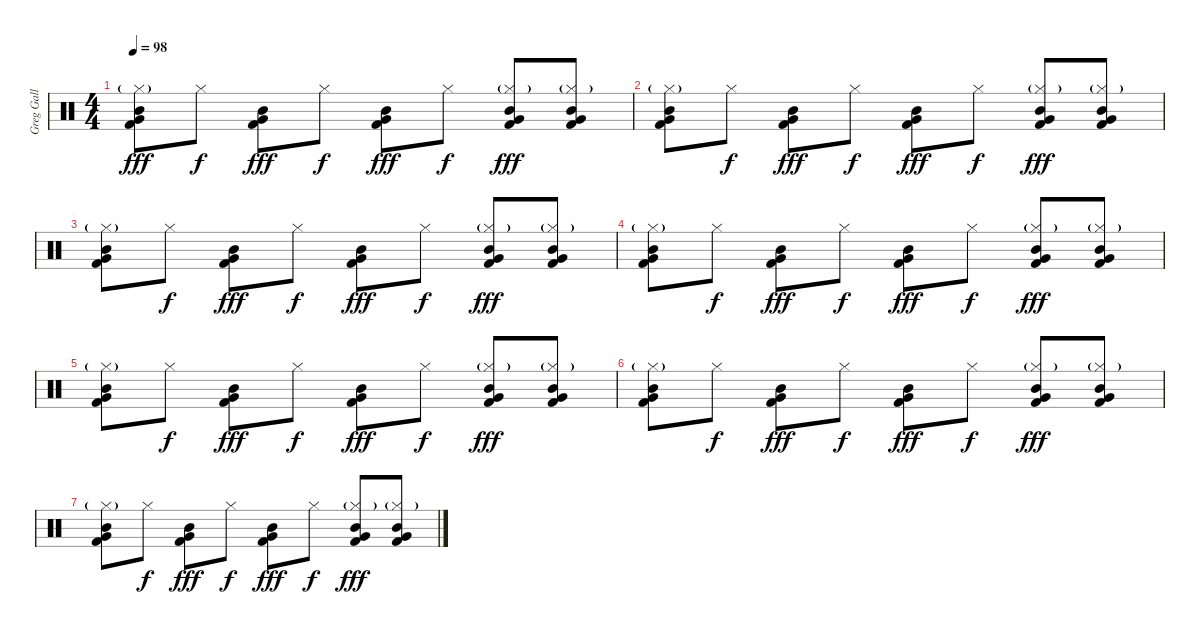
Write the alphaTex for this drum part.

\track ("Greg Gall" "Greg Gall") {instrument percussion}
\staff {score}
\articulation defaults
\ts (4 4)
\tempo 98
\clef neutral
\ks c
("Mid Tom (hit)" "Hi-Hat (closed)"{g} "Very Low Tom (hit)" "Kick (hit) 2").8{dy fff} "Hi-Hat (closed)".8{dy f} ("Mid Tom (hit)" "Very Low Tom (hit)" "Kick (hit) 2").8{dy fff} "Hi-Hat (closed)".8{dy f} ("Mid Tom (hit)" "Very Low Tom (hit)" "Kick (hit) 2").8{dy fff} "Hi-Hat (closed)".8{dy f} ("Mid Tom (hit)" "Hi-Hat (closed)"{g} "Very Low Tom (hit)" "Kick (hit) 2").8{dy fff} ("Mid Tom (hit)" "Hi-Hat (closed)"{g} "Very Low Tom (hit)" "Kick (hit) 2").8 |
("Mid Tom (hit)" "Hi-Hat (closed)"{g} "Very Low Tom (hit)" "Kick (hit) 2").8 "Hi-Hat (closed)".8{dy f} ("Mid Tom (hit)" "Very Low Tom (hit)" "Kick (hit) 2").8{dy fff} "Hi-Hat (closed)".8{dy f} ("Mid Tom (hit)" "Very Low Tom (hit)" "Kick (hit) 2").8{dy fff} "Hi-Hat (closed)".8{dy f} ("Mid Tom (hit)" "Hi-Hat (closed)"{g} "Very Low Tom (hit)" "Kick (hit) 2").8{dy fff} ("Mid Tom (hit)" "Hi-Hat (closed)"{g} "Very Low Tom (hit)" "Kick (hit) 2").8 |
("Mid Tom (hit)" "Hi-Hat (closed)"{g} "Very Low Tom (hit)" "Kick (hit) 2").8 "Hi-Hat (closed)".8{dy f} ("Mid Tom (hit)" "Very Low Tom (hit)" "Kick (hit) 2").8{dy fff} "Hi-Hat (closed)".8{dy f} ("Mid Tom (hit)" "Very Low Tom (hit)" "Kick (hit) 2").8{dy fff} "Hi-Hat (closed)".8{dy f} ("Mid Tom (hit)" "Hi-Hat (closed)"{g} "Very Low Tom (hit)" "Kick (hit) 2").8{dy fff} ("Mid Tom (hit)" "Hi-Hat (closed)"{g} "Very Low Tom (hit)" "Kick (hit) 2").8 |
("Mid Tom (hit)" "Hi-Hat (closed)"{g} "Very Low Tom (hit)" "Kick (hit) 2").8 "Hi-Hat (closed)".8{dy f} ("Mid Tom (hit)" "Very Low Tom (hit)" "Kick (hit) 2").8{dy fff} "Hi-Hat (closed)".8{dy f} ("Mid Tom (hit)" "Very Low Tom (hit)" "Kick (hit) 2").8{dy fff} "Hi-Hat (closed)".8{dy f} ("Mid Tom (hit)" "Hi-Hat (closed)"{g} "Very Low Tom (hit)" "Kick (hit) 2").8{dy fff} ("Mid Tom (hit)" "Hi-Hat (closed)"{g} "Very Low Tom (hit)" "Kick (hit) 2").8 |
("Mid Tom (hit)" "Hi-Hat (closed)"{g} "Very Low Tom (hit)" "Kick (hit) 2").8 "Hi-Hat (closed)".8{dy f} ("Mid Tom (hit)" "Very Low Tom (hit)" "Kick (hit) 2").8{dy fff} "Hi-Hat (closed)".8{dy f} ("Mid Tom (hit)" "Very Low Tom (hit)" "Kick (hit) 2").8{dy fff} "Hi-Hat (closed)".8{dy f} ("Mid Tom (hit)" "Hi-Hat (closed)"{g} "Very Low Tom (hit)" "Kick (hit) 2").8{dy fff} ("Mid Tom (hit)" "Hi-Hat (closed)"{g} "Very Low Tom (hit)" "Kick (hit) 2").8 |
("Mid Tom (hit)" "Hi-Hat (closed)"{g} "Very Low Tom (hit)" "Kick (hit) 2").8 "Hi-Hat (closed)".8{dy f} ("Mid Tom (hit)" "Very Low Tom (hit)" "Kick (hit) 2").8{dy fff} "Hi-Hat (closed)".8{dy f} ("Mid Tom (hit)" "Very Low Tom (hit)" "Kick (hit) 2").8{dy fff} "Hi-Hat (closed)".8{dy f} ("Mid Tom (hit)" "Hi-Hat (closed)"{g} "Very Low Tom (hit)" "Kick (hit) 2").8{dy fff} ("Mid Tom (hit)" "Hi-Hat (closed)"{g} "Very Low Tom (hit)" "Kick (hit) 2").8 |
("Mid Tom (hit)" "Hi-Hat (closed)"{g} "Very Low Tom (hit)" "Kick (hit) 2").8 "Hi-Hat (closed)".8{dy f} ("Mid Tom (hit)" "Very Low Tom (hit)" "Kick (hit) 2").8{dy fff} "Hi-Hat (closed)".8{dy f} ("Mid Tom (hit)" "Very Low Tom (hit)" "Kick (hit) 2").8{dy fff} "Hi-Hat (closed)".8{dy f} ("Mid Tom (hit)" "Hi-Hat (closed)"{g} "Very Low Tom (hit)" "Kick (hit) 2").8{dy fff} ("Mid Tom (hit)" "Hi-Hat (closed)"{g} "Very Low Tom (hit)" "Kick (hit) 2").8
